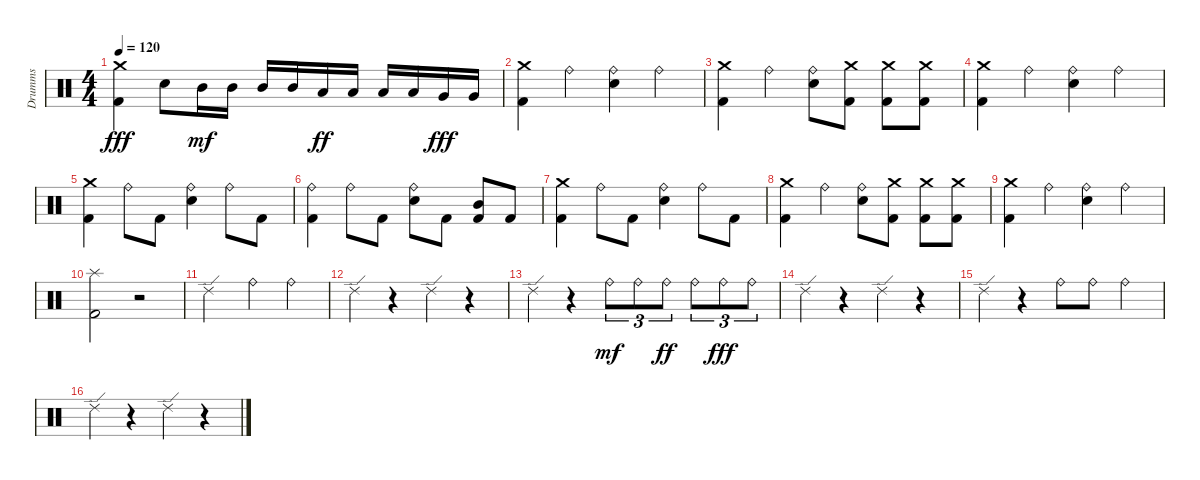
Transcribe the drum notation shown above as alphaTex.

\track ("Drumms" "Drumms") {instrument percussion}
\staff {score}
\articulation defaults
\ts (4 4)
\tempo 120
\clef neutral
\ks c
("Kick (hit) 2" "Crash medium (hit)").4{dy fff} "Snare (hit) 2".8 "Mid Tom (hit)".16{dy mf} "Mid Tom (hit)".16 "Mid Tom (hit)".16 "Mid Tom (hit)".16 "Low Tom (hit)".16{dy ff} "Low Tom (hit)".16 "Low Tom (hit)".16 "Low Tom (hit)".16 "Very Low Tom (hit)".16{dy fff} "Very Low Tom (hit)".16 |
("Kick (hit) 2" "Crash medium (hit)").4 "Ride (bell)".4 ("Snare (hit) 2" "Ride (bell)").4 "Ride (bell)".4 |
("Kick (hit) 2" "Crash medium (hit)").4 "Ride (bell)".4 ("Snare (hit) 2" "Ride (bell)").8 ("Kick (hit) 2" "Crash medium (hit)").8 ("Kick (hit) 2" "Crash medium (hit)").8 ("Kick (hit) 2" "Crash medium (hit)").8 |
("Kick (hit) 2" "Crash medium (hit)").4 "Ride (bell)".4 ("Snare (hit) 2" "Ride (bell)").4 "Ride (bell)".4 |
("Crash medium (hit)" "Kick (hit) 2").4 "Ride (bell)".8 "Kick (hit) 2".8 ("Ride (bell)" "Snare (hit) 2").4 "Ride (bell)".8 "Kick (hit) 2".8 |
("Kick (hit) 2" "Ride (bell)").4 "Ride (bell)".8 "Kick (hit) 2".8 ("Snare (hit) 2" "Ride (bell)").8 "Kick (hit) 2".8 ("Kick (hit) 2" "Mid Tom (hit)").8 "Kick (hit) 2".8 |
("Crash medium (hit)" "Kick (hit) 2").4 "Ride (bell)".8 "Kick (hit) 2".8 ("Ride (bell)" "Snare (hit) 2").4 "Ride (bell)".8 "Kick (hit) 2".8 |
("Kick (hit) 2" "Crash medium (hit)").4 "Ride (bell)".4 ("Snare (hit) 2" "Ride (bell)").8 ("Kick (hit) 2" "Crash medium (hit)").8 ("Kick (hit) 2" "Crash medium (hit)").8 ("Kick (hit) 2" "Crash medium (hit)").8 |
("Kick (hit) 2" "Crash medium (hit)").4 "Ride (bell)".4 ("Snare (hit) 2" "Ride (bell)").4 "Ride (bell)".4 |
("Kick (hit) 2" "Splash (hit)").2 r.2 |
"Ride (edge) 2".2 "Ride (bell)".4 "Ride (bell)".4 |
"Ride (edge) 2".4 r.4 "Ride (edge) 2".4 r.4 |
"Ride (edge) 2".4 r.4 "Ride (bell)".8{tu (3 2) dy mf} "Ride (bell)".8{tu (3 2)} "Ride (bell)".8{tu (3 2) dy ff} "Ride (bell)".8{tu (3 2)} "Ride (bell)".8{tu (3 2) dy fff} "Ride (bell)".8{tu (3 2)} |
"Ride (edge) 2".4 r.4 "Ride (edge) 2".4 r.4 |
"Ride (edge) 2".4 r.4 "Ride (bell)".8 "Ride (bell)".8 "Ride (bell)".4 |
"Ride (edge) 2".4 r.4 "Ride (edge) 2".4 r.4
